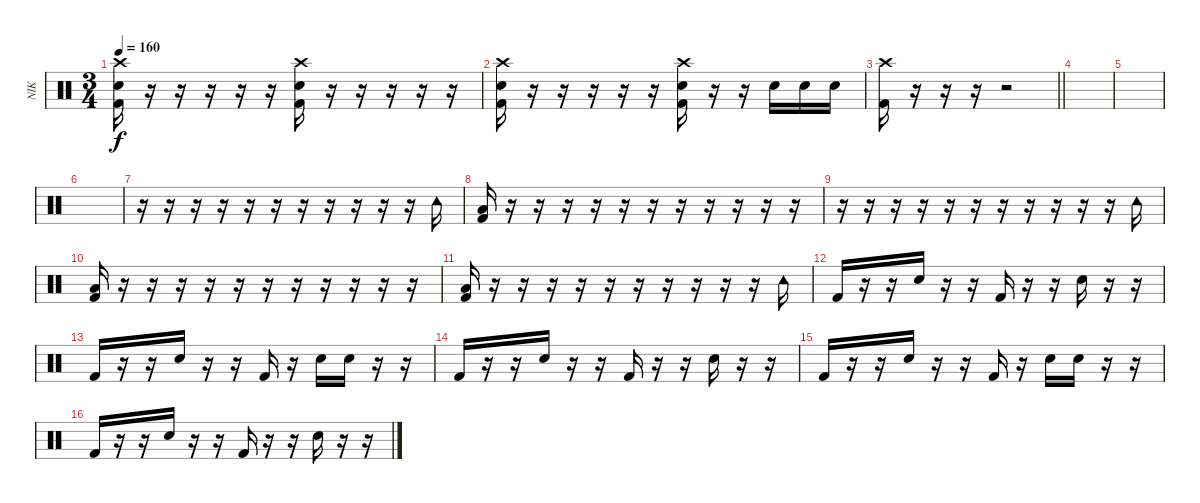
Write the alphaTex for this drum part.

\track ("NIK" "NIK") {instrument percussion}
\staff {score}
\articulation defaults
\ts (3 4)
\tempo 160
\clef neutral
\ks c
("Crash high (hit)" "Snare (hit) 2" "Kick (hit) 2").16{dy f} r.16 r.16 r.16 r.16 r.16 ("Crash high (hit)" "Snare (hit) 2" "Kick (hit) 2").16 r.16 r.16 r.16 r.16 r.16 |
("Crash high (hit)" "Snare (hit) 2" "Kick (hit) 2").16 r.16 r.16 r.16 r.16 r.16 ("Crash high (hit)" "Snare (hit) 2" "Kick (hit) 2").16 r.16 r.16 "Snare (hit) 2".16 "Snare (hit) 2".16 "Snare (hit) 2".16 |
\barLineRight lightlight
("Crash high (hit)" "Kick (hit) 2").16 r.16 r.16 r.16 r.2 |
|
|
|
r.16 r.16 r.16 r.16 r.16 r.16 r.16 r.16 r.16 r.16 r.16 "Tambourine (hit)".16 |
("Low Floor Tom (hit)" "Kick (hit) 2").16 r.16 r.16 r.16 r.16 r.16 r.16 r.16 r.16 r.16 r.16 r.16 |
r.16 r.16 r.16 r.16 r.16 r.16 r.16 r.16 r.16 r.16 r.16 "Tambourine (hit)".16 |
("Low Floor Tom (hit)" "Kick (hit) 2").16 r.16 r.16 r.16 r.16 r.16 r.16 r.16 r.16 r.16 r.16 r.16 |
("Low Floor Tom (hit)" "Kick (hit) 2").16 r.16 r.16 r.16 r.16 r.16 r.16 r.16 r.16 r.16 r.16 "Tambourine (hit)".16 |
"Kick (hit) 2".16 r.16 r.16 "Snare (hit) 2".16 r.16 r.16 "Kick (hit) 2".16 r.16 r.16 "Snare (hit) 2".16 r.16 r.16 |
"Kick (hit) 2".16 r.16 r.16 "Snare (hit) 2".16 r.16 r.16 "Kick (hit) 2".16 r.16 "Snare (hit) 2".16 "Snare (hit) 2".16 r.16 r.16 |
"Kick (hit) 2".16 r.16 r.16 "Snare (hit) 2".16 r.16 r.16 "Kick (hit) 2".16 r.16 r.16 "Snare (hit) 2".16 r.16 r.16 |
"Kick (hit) 2".16 r.16 r.16 "Snare (hit) 2".16 r.16 r.16 "Kick (hit) 2".16 r.16 "Snare (hit) 2".16 "Snare (hit) 2".16 r.16 r.16 |
"Kick (hit) 2".16 r.16 r.16 "Snare (hit) 2".16 r.16 r.16 "Kick (hit) 2".16 r.16 r.16 "Snare (hit) 2".16 r.16 r.16
